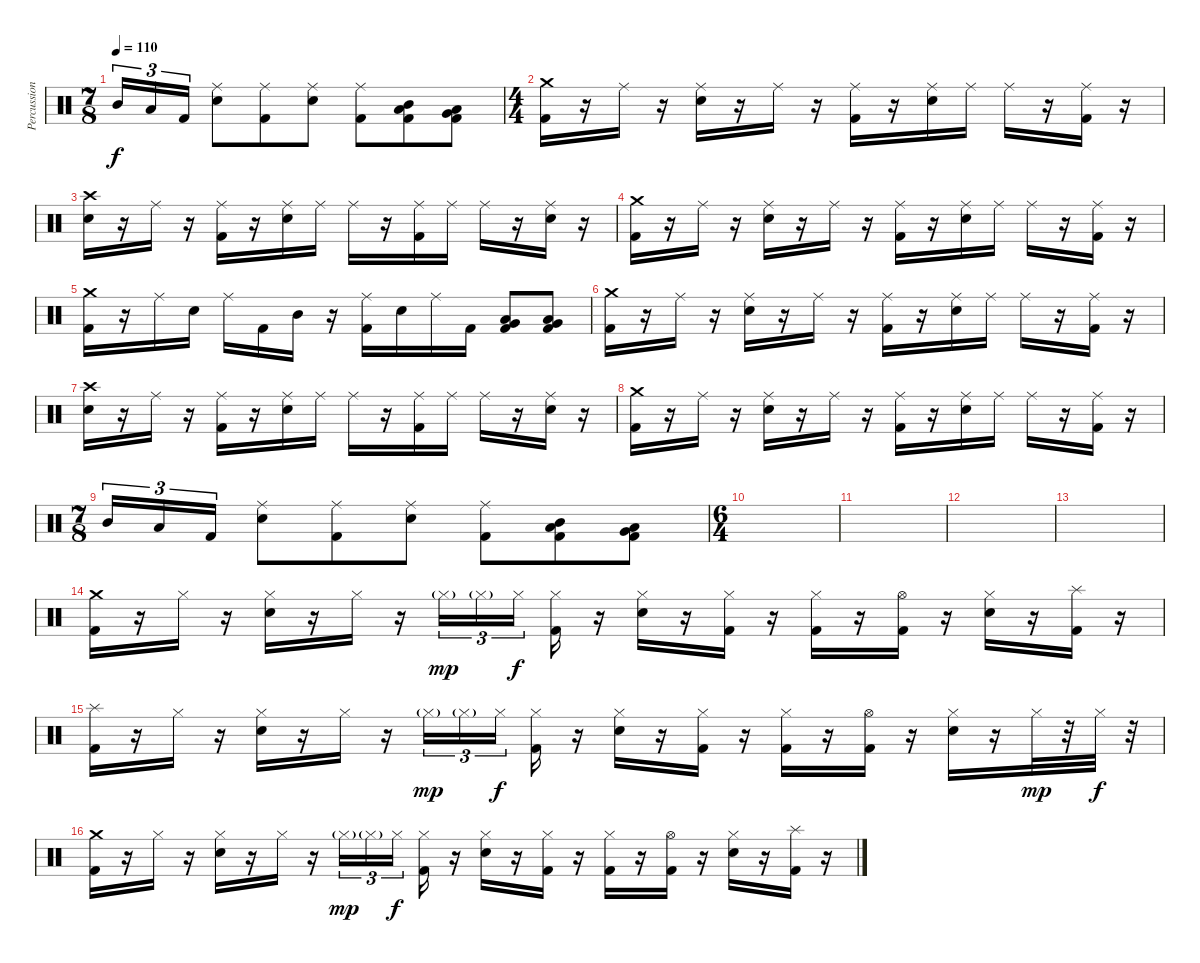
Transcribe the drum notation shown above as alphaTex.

\track ("Percussion" "Percussion") {instrument percussion}
\staff {score}
\articulation defaults
\ts (7 8)
\tempo 110
\clef neutral
\ks c "Mid Tom (hit)".16{tu (3 2) dy f} "Low Tom (hit)".16{tu (3 2)} "Kick (hit) 2".16{tu (3 2)}
("Ride (middle)" "Electric Snare (hit)").8 ("Ride (middle)" "Kick (hit) 2").8 ("Ride (middle)" "Electric Snare (hit)").8 ("Ride (middle)" "Kick (hit) 2").8 ("Mid Tom (hit)" "Low Tom (hit)" "Kick (hit) 2").8 ("Low Tom (hit)" "Very Low Tom (hit)" "Kick (hit) 2").8 |
\ts (4 4)
("Crash medium (hit)" "Kick (hit) 2").16 r.16 "Ride (middle)".16 r.16 ("Ride (middle)" "Electric Snare (hit)").16 r.16 "Ride (middle)".16 r.16 ("Ride (middle)" "Kick (hit) 2").16 r.16 ("Ride (middle)" "Electric Snare (hit)").16 "Ride (middle)".16 "Ride (middle)".16 r.16 ("Ride (middle)" "Kick (hit) 2").16 r.16 |
("Crash high (hit)" "Electric Snare (hit)").16 r.16 "Ride (middle)".16 r.16 ("Ride (middle)" "Kick (hit) 2").16 r.16 ("Ride (middle)" "Electric Snare (hit)").16 "Ride (middle)".16 "Ride (middle)".16 r.16 ("Ride (middle)" "Kick (hit) 2").16 "Ride (middle)".16 "Ride (middle)".16 r.16 ("Ride (middle)" "Electric Snare (hit)").16 r.16 |
("Crash medium (hit)" "Kick (hit) 2").16 r.16 "Ride (middle)".16 r.16 ("Ride (middle)" "Electric Snare (hit)").16 r.16 "Ride (middle)".16 r.16 ("Ride (middle)" "Kick (hit) 2").16 r.16 ("Ride (middle)" "Electric Snare (hit)").16 "Ride (middle)".16 "Ride (middle)".16 r.16 ("Ride (middle)" "Kick (hit) 2").16 r.16 |
("Crash medium (hit)" "Kick (hit) 2").16 r.16 "Ride (middle)".16 "Electric Snare (hit)".16 "Ride (middle)".16 "Kick (hit) 2".16 "Mid Tom (hit)".16 r.16 ("Ride (middle)" "Kick (hit) 2").16 "Electric Snare (hit)".16 "Ride (middle)".16 "Kick (hit) 2".16 ("Kick (hit) 2" "Very Low Tom (hit)" "Low Tom (hit)").8 ("Kick (hit) 2" "Very Low Tom (hit)" "Low Floor Tom (hit)").8 |
("Crash medium (hit)" "Kick (hit) 2").16 r.16 "Ride (middle)".16 r.16 ("Ride (middle)" "Electric Snare (hit)").16 r.16 "Ride (middle)".16 r.16 ("Ride (middle)" "Kick (hit) 2").16 r.16 ("Ride (middle)" "Electric Snare (hit)").16 "Ride (middle)".16 "Ride (middle)".16 r.16 ("Ride (middle)" "Kick (hit) 2").16 r.16 |
("Crash high (hit)" "Electric Snare (hit)").16 r.16 "Ride (middle)".16 r.16 ("Ride (middle)" "Kick (hit) 2").16 r.16 ("Ride (middle)" "Electric Snare (hit)").16 "Ride (middle)".16 "Ride (middle)".16 r.16 ("Ride (middle)" "Kick (hit) 2").16 "Ride (middle)".16 "Ride (middle)".16 r.16 ("Ride (middle)" "Electric Snare (hit)").16 r.16 |
("Crash medium (hit)" "Kick (hit) 2").16 r.16 "Ride (middle)".16 r.16 ("Ride (middle)" "Electric Snare (hit)").16 r.16 "Ride (middle)".16 r.16 ("Ride (middle)" "Kick (hit) 2").16 r.16 ("Ride (middle)" "Electric Snare (hit)").16 "Ride (middle)".16 "Ride (middle)".16 r.16 ("Ride (middle)" "Kick (hit) 2").16 r.16 |
\ts (7 8)
"Mid Tom (hit)".16{tu (3 2)} "Low Tom (hit)".16{tu (3 2)} "Kick (hit) 2".16{tu (3 2)} ("Ride (middle)" "Electric Snare (hit)").8 ("Ride (middle)" "Kick (hit) 2").8 ("Ride (middle)" "Electric Snare (hit)").8 ("Ride (middle)" "Kick (hit) 2").8 ("Mid Tom (hit)" "Low Tom (hit)" "Kick (hit) 2").8 ("Low Tom (hit)" "Very Low Tom (hit)" "Kick (hit) 2").8 |
\ts (6 4)
|
|
|
|
("Crash medium (hit)" "Kick (hit) 2").16 r.16 "Hi-Hat (closed)".16 r.16 ("Hi-Hat (closed)" "Electric Snare (hit)").16 r.16 "Hi-Hat (closed)".16 r.16 "Hi-Hat (closed)"{g}.16{tu (3 2) dy mp} "Hi-Hat (closed)"{g}.16{tu (3 2)} "Hi-Hat (closed)".16{tu (3 2) dy f beam splitsecondary} ("Hi-Hat (closed)" "Kick (hit) 2").16 r.16 ("Hi-Hat (closed)" "Electric Snare (hit)").16 r.16 ("Hi-Hat (closed)" "Kick (hit) 2").16 r.16 ("Hi-Hat (closed)" "Kick (hit) 2").16 r.16 ("Hi-Hat (open)" "Kick (hit) 2").16 r.16 ("Hi-Hat (closed)" "Electric Snare (hit)").16 r.16 ("Splash (hit)" "Kick (hit) 2").16 r.16 |
("Splash (hit)" "Kick (hit) 2").16 r.16 "Hi-Hat (closed)".16 r.16 ("Hi-Hat (closed)" "Electric Snare (hit)").16 r.16 "Hi-Hat (closed)".16 r.16 "Hi-Hat (closed)"{g}.16{tu (3 2) dy mp} "Hi-Hat (closed)"{g}.16{tu (3 2)} "Hi-Hat (closed)".16{tu (3 2) dy f beam splitsecondary} ("Hi-Hat (closed)" "Kick (hit) 2").16 r.16 ("Hi-Hat (closed)" "Electric Snare (hit)").16 r.16 ("Hi-Hat (closed)" "Kick (hit) 2").16 r.16 ("Hi-Hat (closed)" "Kick (hit) 2").16 r.16 ("Hi-Hat (open)" "Kick (hit) 2").16 r.16 ("Hi-Hat (closed)" "Electric Snare (hit)").16 r.16 "Hi-Hat (closed)".32{dy mp} r.32 "Hi-Hat (closed)".32{dy f} r.32 |
("Crash medium (hit)" "Kick (hit) 2").16 r.16 "Hi-Hat (closed)".16 r.16 ("Hi-Hat (closed)" "Electric Snare (hit)").16 r.16 "Hi-Hat (closed)".16 r.16 "Hi-Hat (closed)"{g}.16{tu (3 2) dy mp} "Hi-Hat (closed)"{g}.16{tu (3 2)} "Hi-Hat (closed)".16{tu (3 2) dy f beam splitsecondary} ("Hi-Hat (closed)" "Kick (hit) 2").16 r.16 ("Hi-Hat (closed)" "Electric Snare (hit)").16 r.16 ("Hi-Hat (closed)" "Kick (hit) 2").16 r.16 ("Hi-Hat (closed)" "Kick (hit) 2").16 r.16 ("Hi-Hat (open)" "Kick (hit) 2").16 r.16 ("Hi-Hat (closed)" "Electric Snare (hit)").16 r.16 ("Splash (hit)" "Kick (hit) 2").16 r.16
